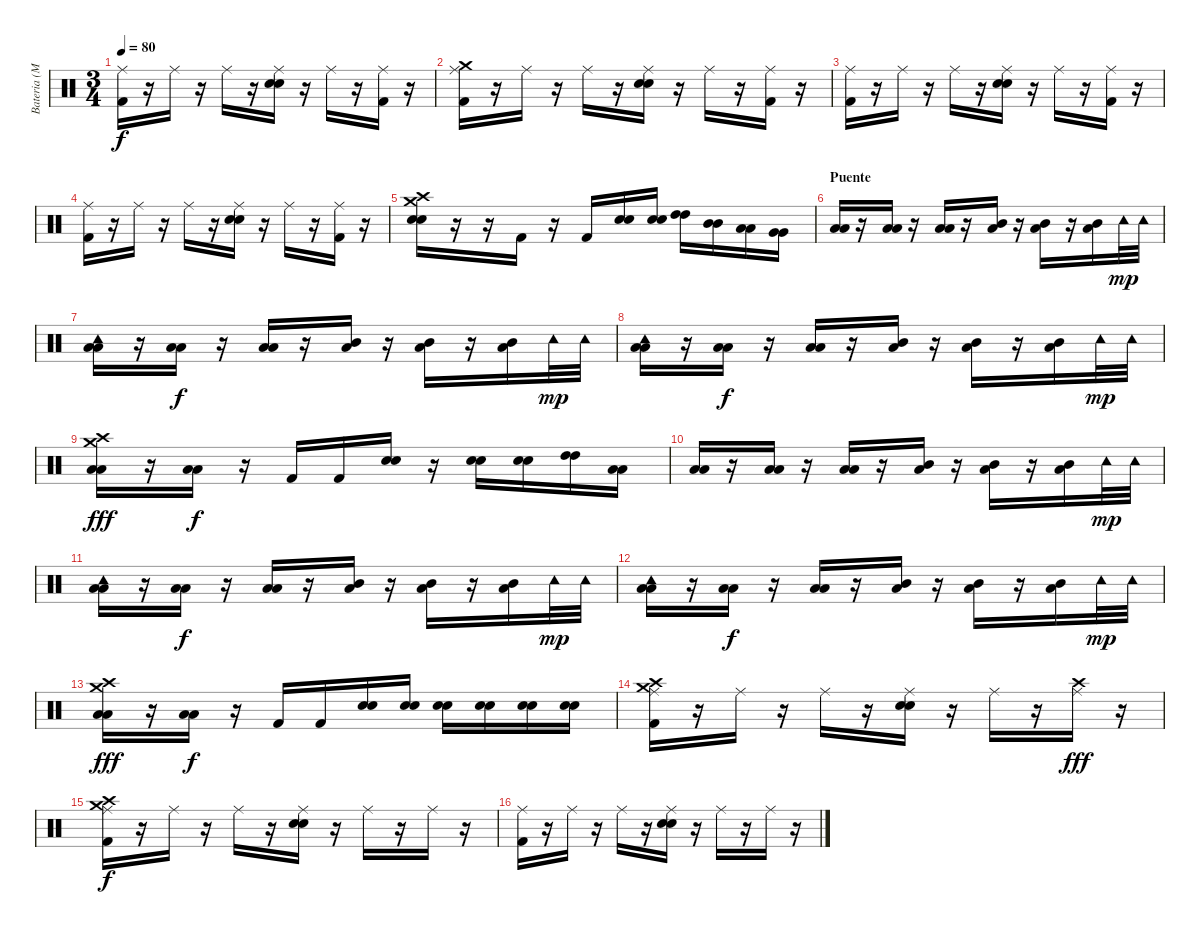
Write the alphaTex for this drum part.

\track ("Bateria (Matt)" "Bateria (M") {instrument percussion}
\staff {score}
\articulation defaults
\ts (3 4)
\tempo 80
\clef neutral
\ks c
("Ride (middle)" "Kick (hit) 2").16{dy f} r.16 "Ride (middle)".16 r.16 "Ride (middle)".16 r.16 ("Ride (middle)" "Electric Snare (hit)" "Snare (hit) 2").16 r.16 "Ride (middle)".16 r.16 ("Ride (middle)" "Kick (hit) 2").16 r.16 |
("Ride (middle)" "Crash medium (hit)" "Kick (hit) 2").16 r.16 "Ride (middle)".16 r.16 "Ride (middle)".16 r.16 ("Ride (middle)" "Electric Snare (hit)" "Snare (hit) 2").16 r.16 "Ride (middle)".16 r.16 ("Ride (middle)" "Kick (hit) 2").16 r.16 |
("Ride (middle)" "Kick (hit) 2").16 r.16 "Ride (middle)".16 r.16 "Ride (middle)".16 r.16 ("Ride (middle)" "Electric Snare (hit)" "Snare (hit) 2").16 r.16 "Ride (middle)".16 r.16 ("Ride (middle)" "Kick (hit) 2").16 r.16 |
("Ride (middle)" "Kick (hit) 2").16 r.16 "Ride (middle)".16 r.16 "Ride (middle)".16 r.16 ("Ride (middle)" "Electric Snare (hit)" "Snare (hit) 2").16 r.16 "Ride (middle)".16 r.16 ("Ride (middle)" "Kick (hit) 2").16 r.16 |
("Crash medium (hit)" "Crash high (hit)" "Electric Snare (hit)" "Snare (hit) 2").16 r.16 r.16 "Kick (hit) 2".16 r.16 "Kick (hit) 2".16 ("Electric Snare (hit)" "Snare (hit) 2").16 ("Electric Snare (hit)" "Snare (hit) 2").16 ("High Tom (hit)" "High Tom (hit)").16 ("Mid Tom (hit)" "Mid Tom (hit)").16 ("Low Tom (hit)" "Low Tom (hit)").16 ("Very Low Tom (hit)" "Very Low Tom (hit)").16 |
\section ("" "Puente")
("Low Tom (hit)" "Low Tom (hit)").16 r.16 ("Low Tom (hit)" "Low Tom (hit)").16 r.16 ("Low Tom (hit)" "Low Tom (hit)").16 r.16 ("Low Tom (hit)" "Mid Tom (hit)").16 r.16 ("Low Tom (hit)" "Mid Tom (hit)").16 r.16 ("Low Tom (hit)" "Mid Tom (hit)").16 "Tambourine (hit)".32{dy mp} "Tambourine (hit)".32 |
("Tambourine (hit)" "Low Tom (hit)" "Low Tom (hit)").16 r.16 ("Low Tom (hit)" "Low Tom (hit)").16{dy f} r.16 ("Low Tom (hit)" "Low Tom (hit)").16 r.16 ("Low Tom (hit)" "Mid Tom (hit)").16 r.16 ("Low Tom (hit)" "Mid Tom (hit)").16 r.16 ("Low Tom (hit)" "Mid Tom (hit)").16 "Tambourine (hit)".32{dy mp} "Tambourine (hit)".32 |
("Tambourine (hit)" "Low Tom (hit)" "Low Tom (hit)").16 r.16 ("Low Tom (hit)" "Low Tom (hit)").16{dy f} r.16 ("Low Tom (hit)" "Low Tom (hit)").16 r.16 ("Low Tom (hit)" "Mid Tom (hit)").16 r.16 ("Low Tom (hit)" "Mid Tom (hit)").16 r.16 ("Low Tom (hit)" "Mid Tom (hit)").16 "Tambourine (hit)".32{dy mp} "Tambourine (hit)".32 |
("Crash high (hit)" "Crash medium (hit)" "Low Tom (hit)" "Low Tom (hit)").16{dy fff} r.16 ("Low Tom (hit)" "Low Tom (hit)").16{dy f} r.16 "Kick (hit) 2".16 "Kick (hit) 2".16 ("Electric Snare (hit)" "Snare (hit) 2").16 r.16 ("Electric Snare (hit)" "Snare (hit) 2").16 ("Electric Snare (hit)" "Snare (hit) 2").16 ("High Tom (hit)" "High Tom (hit)").16 ("Low Tom (hit)" "Low Tom (hit)").16 |
("Low Tom (hit)" "Low Tom (hit)").16 r.16 ("Low Tom (hit)" "Low Tom (hit)").16 r.16 ("Low Tom (hit)" "Low Tom (hit)").16 r.16 ("Low Tom (hit)" "Mid Tom (hit)").16 r.16 ("Low Tom (hit)" "Mid Tom (hit)").16 r.16 ("Low Tom (hit)" "Mid Tom (hit)").16 "Tambourine (hit)".32{dy mp} "Tambourine (hit)".32 |
("Tambourine (hit)" "Low Tom (hit)" "Low Tom (hit)").16 r.16 ("Low Tom (hit)" "Low Tom (hit)").16{dy f} r.16 ("Low Tom (hit)" "Low Tom (hit)").16 r.16 ("Low Tom (hit)" "Mid Tom (hit)").16 r.16 ("Low Tom (hit)" "Mid Tom (hit)").16 r.16 ("Low Tom (hit)" "Mid Tom (hit)").16 "Tambourine (hit)".32{dy mp} "Tambourine (hit)".32 |
("Tambourine (hit)" "Low Tom (hit)" "Low Tom (hit)").16 r.16 ("Low Tom (hit)" "Low Tom (hit)").16{dy f} r.16 ("Low Tom (hit)" "Low Tom (hit)").16 r.16 ("Low Tom (hit)" "Mid Tom (hit)").16 r.16 ("Low Tom (hit)" "Mid Tom (hit)").16 r.16 ("Low Tom (hit)" "Mid Tom (hit)").16 "Tambourine (hit)".32{dy mp} "Tambourine (hit)".32 |
("Crash high (hit)" "Crash medium (hit)" "Low Tom (hit)" "Low Tom (hit)").16{dy fff} r.16 ("Low Tom (hit)" "Low Tom (hit)").16{dy f} r.16 "Kick (hit) 2".16 "Kick (hit) 2".16 ("Electric Snare (hit)" "Snare (hit) 2").16 ("Electric Snare (hit)" "Snare (hit) 2").16 ("Electric Snare (hit)" "Snare (hit) 2").16 ("Electric Snare (hit)" "Snare (hit) 2").16 ("Electric Snare (hit)" "Snare (hit) 2").16 ("Electric Snare (hit)" "Snare (hit) 2").16 |
("Ride (middle)" "Crash medium (hit)" "Crash high (hit)" "Kick (hit) 2").16 r.16 "Ride (middle)".16 r.16 "Ride (middle)".16 r.16 ("Ride (middle)" "Electric Snare (hit)" "Snare (hit) 2").16 r.16 "Ride (middle)".16 r.16 ("Ride (middle)" "Crash high (hit)").16{dy fff} r.16 |
("Ride (middle)" "Crash medium (hit)" "Crash high (hit)" "Kick (hit) 2").16{dy f} r.16 "Ride (middle)".16 r.16 "Ride (middle)".16 r.16 ("Ride (middle)" "Electric Snare (hit)" "Snare (hit) 2").16 r.16 "Ride (middle)".16 r.16 "Ride (middle)".16 r.16 |
("Ride (middle)" "Kick (hit) 2").16 r.16 "Ride (middle)".16 r.16 "Ride (middle)".16 r.16 ("Ride (middle)" "Electric Snare (hit)" "Snare (hit) 2").16 r.16 "Ride (middle)".16 r.16 "Ride (middle)".16 r.16
